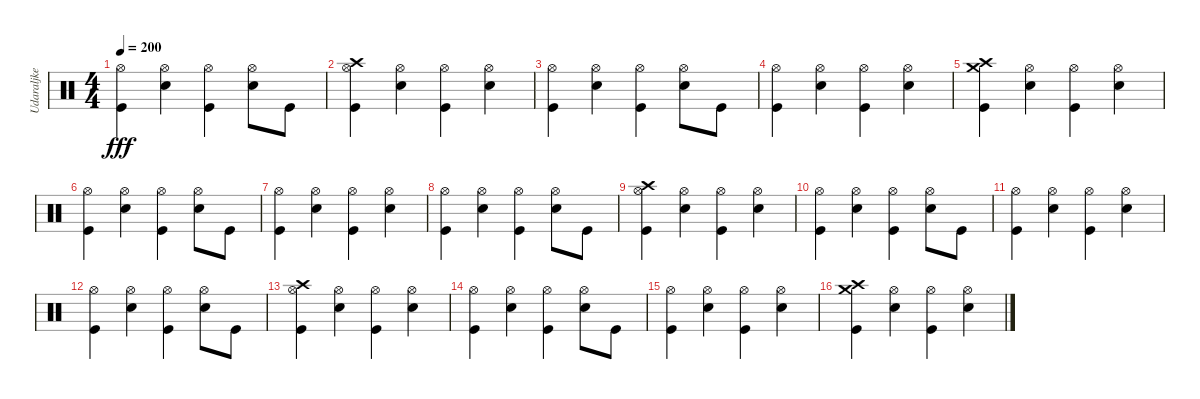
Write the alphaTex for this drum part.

\track ("Udaraljke" "Udaraljke") {instrument percussion}
\staff {score}
\articulation defaults
\ts (4 4)
\tempo 200
\clef neutral
\ks c
("Hi-Hat (open)" "Kick (hit)").4{dy fff} ("Hi-Hat (open)" "Electric Snare (hit)").4 ("Hi-Hat (open)" "Kick (hit)").4 ("Hi-Hat (open)" "Electric Snare (hit)").8 "Kick (hit)".8 |
("Crash high (hit)" "Hi-Hat (open)" "Kick (hit)").4 ("Hi-Hat (open)" "Electric Snare (hit)").4 ("Hi-Hat (open)" "Kick (hit)").4 ("Hi-Hat (open)" "Electric Snare (hit)").4 |
("Hi-Hat (open)" "Kick (hit)").4 ("Hi-Hat (open)" "Electric Snare (hit)").4 ("Hi-Hat (open)" "Kick (hit)").4 ("Hi-Hat (open)" "Electric Snare (hit)").8 "Kick (hit)".8 |
("Hi-Hat (open)" "Kick (hit)").4 ("Hi-Hat (open)" "Electric Snare (hit)").4 ("Hi-Hat (open)" "Kick (hit)").4 ("Hi-Hat (open)" "Electric Snare (hit)").4 |
("Crash high (hit)" "Crash medium (hit)" "Kick (hit)").4 ("Hi-Hat (open)" "Electric Snare (hit)").4 ("Hi-Hat (open)" "Kick (hit)").4 ("Hi-Hat (open)" "Electric Snare (hit)").4 |
("Hi-Hat (open)" "Kick (hit)").4 ("Hi-Hat (open)" "Electric Snare (hit)").4 ("Hi-Hat (open)" "Kick (hit)").4 ("Hi-Hat (open)" "Electric Snare (hit)").8 "Kick (hit)".8 |
("Hi-Hat (open)" "Kick (hit)").4 ("Hi-Hat (open)" "Electric Snare (hit)").4 ("Hi-Hat (open)" "Kick (hit)").4 ("Hi-Hat (open)" "Electric Snare (hit)").4 |
("Hi-Hat (open)" "Kick (hit)").4 ("Hi-Hat (open)" "Electric Snare (hit)").4 ("Hi-Hat (open)" "Kick (hit)").4 ("Hi-Hat (open)" "Electric Snare (hit)").8 "Kick (hit)".8 |
("Crash high (hit)" "Hi-Hat (open)" "Kick (hit)").4 ("Hi-Hat (open)" "Electric Snare (hit)").4 ("Hi-Hat (open)" "Kick (hit)").4 ("Hi-Hat (open)" "Electric Snare (hit)").4 |
("Hi-Hat (open)" "Kick (hit)").4 ("Hi-Hat (open)" "Electric Snare (hit)").4 ("Hi-Hat (open)" "Kick (hit)").4 ("Hi-Hat (open)" "Electric Snare (hit)").8 "Kick (hit)".8 |
("Hi-Hat (open)" "Kick (hit)").4 ("Hi-Hat (open)" "Electric Snare (hit)").4 ("Hi-Hat (open)" "Kick (hit)").4 ("Hi-Hat (open)" "Electric Snare (hit)").4 |
("Hi-Hat (open)" "Kick (hit)").4 ("Hi-Hat (open)" "Electric Snare (hit)").4 ("Hi-Hat (open)" "Kick (hit)").4 ("Hi-Hat (open)" "Electric Snare (hit)").8 "Kick (hit)".8 |
("Crash high (hit)" "Hi-Hat (open)" "Kick (hit)").4 ("Hi-Hat (open)" "Electric Snare (hit)").4 ("Hi-Hat (open)" "Kick (hit)").4 ("Hi-Hat (open)" "Electric Snare (hit)").4 |
("Hi-Hat (open)" "Kick (hit)").4 ("Hi-Hat (open)" "Electric Snare (hit)").4 ("Hi-Hat (open)" "Kick (hit)").4 ("Hi-Hat (open)" "Electric Snare (hit)").8 "Kick (hit)".8 |
("Hi-Hat (open)" "Kick (hit)").4 ("Hi-Hat (open)" "Electric Snare (hit)").4 ("Hi-Hat (open)" "Kick (hit)").4 ("Hi-Hat (open)" "Electric Snare (hit)").4 |
("Crash high (hit)" "Crash medium (hit)" "Kick (hit)").4 ("Hi-Hat (open)" "Electric Snare (hit)").4 ("Hi-Hat (open)" "Kick (hit)").4 ("Hi-Hat (open)" "Electric Snare (hit)").4
